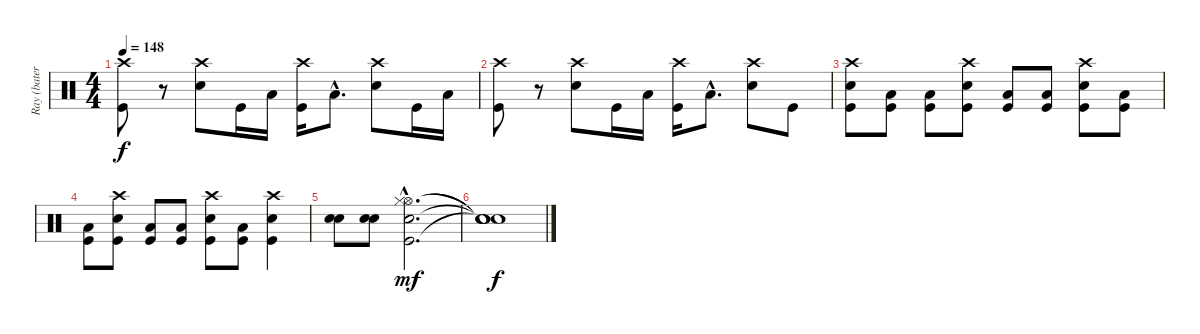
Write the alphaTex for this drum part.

\track ("Ray (batería)" "Ray (bater") {instrument percussion}
\staff {score}
\articulation defaults
\ts (4 4)
\tempo 148
\clef neutral
\ks c
("Crash high (hit)" "Kick (hit)").8{dy f} r.8 ("Crash high (hit)" "Snare (hit) 2").8 "Kick (hit)".16 "Low Tom (hit)".16 ("Crash high (hit)" "Kick (hit)").16 "Low Tom (hit)"{hac}.8{d} ("Crash high (hit)" "Snare (hit) 2").8 "Kick (hit)".16 "Low Tom (hit)".16 |
("Crash high (hit)" "Kick (hit)").8 r.8 ("Crash high (hit)" "Snare (hit) 2").8 "Kick (hit)".16 "Low Tom (hit)".16 ("Crash high (hit)" "Kick (hit)").16 "Low Tom (hit)"{hac}.8{d} ("Crash high (hit)" "Snare (hit) 2").8 "Kick (hit)".8 |
("Crash high (hit)" "Snare (hit) 2" "Kick (hit)").8 ("Low Tom (hit)" "Kick (hit)").8 ("Low Tom (hit)" "Kick (hit)").8 ("Crash high (hit)" "Snare (hit) 2" "Kick (hit)").8 ("Low Tom (hit)" "Kick (hit)").8 ("Low Tom (hit)" "Kick (hit)").8 ("Crash high (hit)" "Snare (hit) 2" "Kick (hit)").8 ("Low Tom (hit)" "Kick (hit)").8 |
("Low Tom (hit)" "Kick (hit)").8 ("Crash high (hit)" "Snare (hit) 2" "Kick (hit)").8 ("Low Tom (hit)" "Kick (hit)").8 ("Low Tom (hit)" "Kick (hit)").8 ("Crash high (hit)" "Snare (hit) 2" "Kick (hit)").8 ("Low Tom (hit)" "Kick (hit)").8 ("Crash high (hit)" "Snare (hit) 2" "Kick (hit)").4 |
("Snare (hit) 2" "Electric Snare (hit)").8 ("Snare (hit) 2" "Electric Snare (hit)").8 ("Hi-Hat (open)"{hac} "Hi-Hat (closed)"{hac} "Snare (hit) 2"{hac} "Kick (hit)"{hac}).2{d dy mf} |
("Snare (hit)"{t} "Snare (hit)"{t} "Snare (hit)"{t} "Snare (hit)"{t}).1{dy f}
